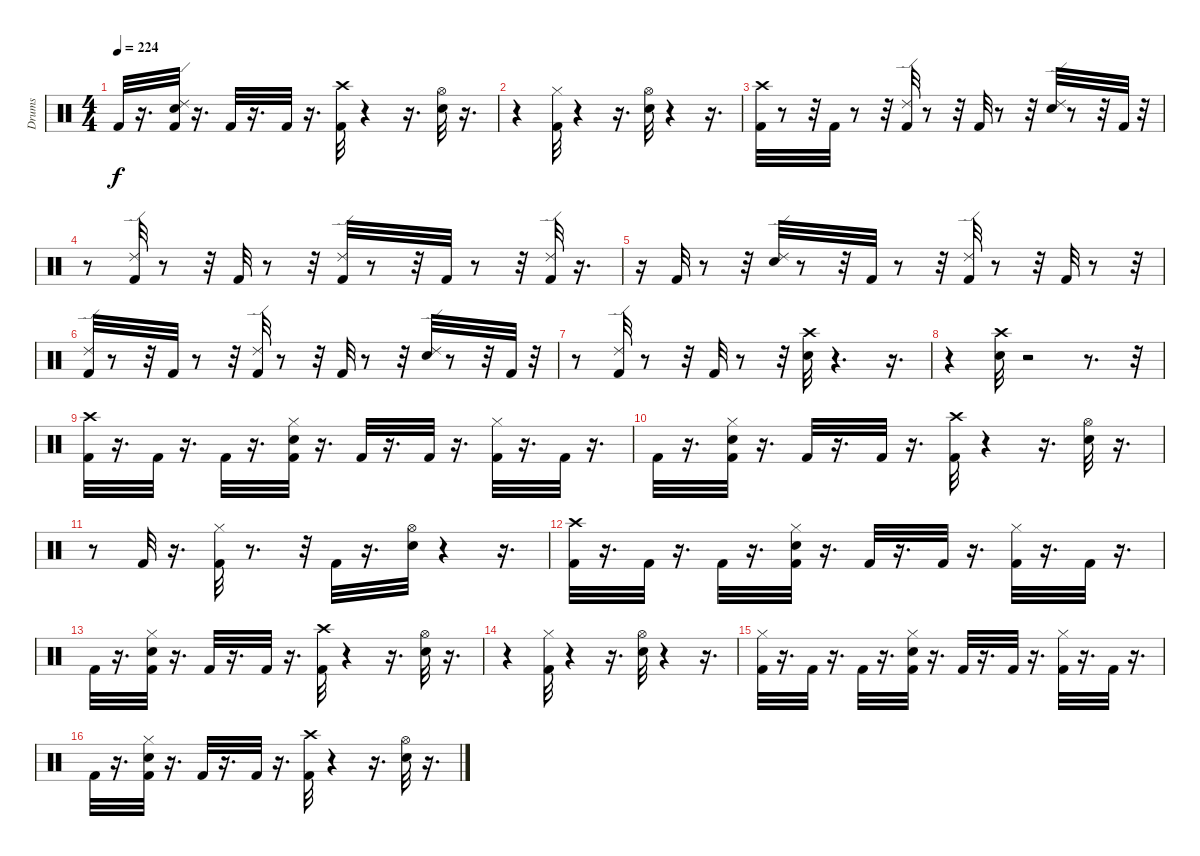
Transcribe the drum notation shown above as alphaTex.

\track ("Drums" "Drums") {instrument percussion}
\staff {score}
\articulation defaults
\ts (4 4)
\tempo 224
\clef neutral
\ks c "Kick (hit) 2".32{dy f}
r.16{d} ("Snare (hit) 2" "Ride (edge) 2" "Kick (hit) 2").32 r.16{d} "Kick (hit) 2".32 r.16{d} "Kick (hit) 2".32 r.16{d} ("Crash high (hit)" "Kick (hit) 2").32 r.4 r.16{d} ("Snare (hit) 2" "Hi-Hat (open)").32 r.16{d} |
r.4 ("Hi-Hat (closed)" "Kick (hit) 2").32 r.4 r.16{d} ("Hi-Hat (open)" "Snare (hit) 2").32 r.4 r.16{d} |
("Kick (hit) 2" "Crash high (hit)").32 r.8 r.32 "Kick (hit) 2".32 r.8 r.32 ("Kick (hit) 2" "Ride (edge) 2").32 r.8 r.32 "Kick (hit) 2".32 r.8 r.32 ("Snare (hit) 2" "Ride (edge) 2").32 r.8 r.32 "Kick (hit) 2".32 r.32 |
r.8 ("Kick (hit) 2" "Ride (edge) 2").32 r.8 r.32 "Kick (hit) 2".32 r.8 r.32 ("Kick (hit) 2" "Ride (edge) 2").32 r.8 r.32 "Kick (hit) 2".32 r.8 r.32 ("Kick (hit) 2" "Ride (edge) 2").32 r.16{d} |
r.16 "Kick (hit) 2".32 r.8 r.32 ("Ride (edge) 2" "Snare (hit) 2").32 r.8 r.32 "Kick (hit) 2".32 r.8 r.32 ("Ride (edge) 2" "Kick (hit) 2").32 r.8 r.32 "Kick (hit) 2".32 r.8 r.32 |
("Kick (hit) 2" "Ride (edge) 2").32 r.8 r.32 "Kick (hit) 2".32 r.8 r.32 ("Kick (hit) 2" "Ride (edge) 2").32 r.8 r.32 "Kick (hit) 2".32 r.8 r.32 ("Snare (hit) 2" "Ride (edge) 2").32 r.8 r.32 "Kick (hit) 2".32 r.32 |
r.8 ("Kick (hit) 2" "Ride (edge) 2").32 r.8 r.32 "Kick (hit) 2".32 r.8 r.32 ("Snare (hit) 2" "Crash high (hit)").32 r.4{d} r.16{d} |
r.4 ("Snare (hit) 2" "Crash high (hit)").32 r.2 r.8{d} r.32 |
("Crash high (hit)" "Kick (hit) 2").32 r.16{d} "Kick (hit) 2".32 r.16{d} "Kick (hit) 2".32 r.16{d} ("Snare (hit) 2" "Kick (hit) 2" "Hi-Hat (closed)").32 r.16{d} "Kick (hit) 2".32 r.16{d} "Kick (hit) 2".32 r.16{d} ("Kick (hit) 2" "Hi-Hat (closed)").32 r.16{d} "Kick (hit) 2".32 r.16{d} |
"Kick (hit) 2".32 r.16{d} ("Snare (hit) 2" "Hi-Hat (closed)" "Kick (hit) 2").32 r.16{d} "Kick (hit) 2".32 r.16{d} "Kick (hit) 2".32 r.16{d} ("Crash high (hit)" "Kick (hit) 2").32 r.4 r.16{d} ("Snare (hit) 2" "Hi-Hat (open)").32 r.16{d} |
r.8 "Kick (hit) 2".32 r.16{d} ("Hi-Hat (closed)" "Kick (hit) 2").32 r.8{d} r.32 "Kick (hit) 2".32 r.16{d} ("Hi-Hat (open)" "Snare (hit) 2").32 r.4 r.16{d} |
("Kick (hit) 2" "Crash high (hit)").32 r.16{d} "Kick (hit) 2".32 r.16{d} "Kick (hit) 2".32 r.16{d} ("Snare (hit) 2" "Kick (hit) 2" "Hi-Hat (closed)").32 r.16{d} "Kick (hit) 2".32 r.16{d} "Kick (hit) 2".32 r.16{d} ("Kick (hit) 2" "Hi-Hat (closed)").32 r.16{d} "Kick (hit) 2".32 r.16{d} |
"Kick (hit) 2".32 r.16{d} ("Snare (hit) 2" "Hi-Hat (closed)" "Kick (hit) 2").32 r.16{d} "Kick (hit) 2".32 r.16{d} "Kick (hit) 2".32 r.16{d} ("Crash high (hit)" "Kick (hit) 2").32 r.4 r.16{d} ("Snare (hit) 2" "Hi-Hat (open)").32 r.16{d} |
r.4 ("Hi-Hat (closed)" "Kick (hit) 2").32 r.4 r.16{d} ("Hi-Hat (open)" "Snare (hit) 2").32 r.4 r.16{d} |
("Kick (hit) 2" "Hi-Hat (closed)").32 r.16{d} "Kick (hit) 2".32 r.16{d} "Kick (hit) 2".32 r.16{d} ("Snare (hit) 2" "Kick (hit) 2" "Hi-Hat (closed)").32 r.16{d} "Kick (hit) 2".32 r.16{d} "Kick (hit) 2".32 r.16{d} ("Kick (hit) 2" "Hi-Hat (closed)").32 r.16{d} "Kick (hit) 2".32 r.16{d} |
"Kick (hit) 2".32 r.16{d} ("Snare (hit) 2" "Kick (hit) 2" "Hi-Hat (closed)").32 r.16{d} "Kick (hit) 2".32 r.16{d} "Kick (hit) 2".32 r.16{d} ("Crash high (hit)" "Kick (hit) 2").32 r.4 r.16{d} ("Snare (hit) 2" "Hi-Hat (open)").32 r.16{d}
